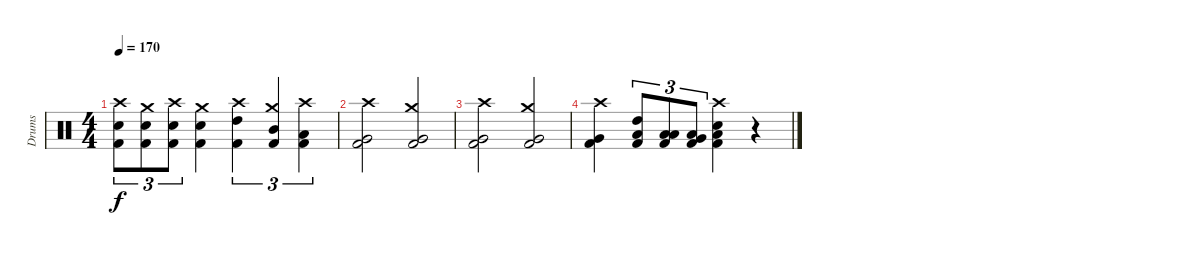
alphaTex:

\track ("Drums" "Drums") {instrument percussion}
\staff {score}
\articulation defaults
\ts (4 4)
\tempo 170
\clef neutral
\ks c
("Crash high (hit)" "Snare (hit) 2" "Kick (hit) 2").8{tu (3 2) dy f} ("Crash medium (hit)" "Snare (hit) 2" "Kick (hit) 2").8{tu (3 2)} ("Crash high (hit)" "Snare (hit) 2" "Kick (hit) 2").8{tu (3 2)} ("Crash medium (hit)" "Snare (hit) 2" "Kick (hit) 2").4 ("Crash high (hit)" "High Tom (hit)" "Kick (hit) 2").4{tu (3 2)} ("Crash medium (hit)" "Mid Tom (hit)" "Kick (hit) 2").4{tu (3 2)} ("Crash high (hit)" "Low Tom (hit)" "Kick (hit) 2").4{tu (3 2)} |
("Crash high (hit)" "Very Low Tom (hit)" "Kick (hit) 2").2 ("Crash medium (hit)" "Very Low Tom (hit)" "Kick (hit) 2").2 |
("Crash high (hit)" "Very Low Tom (hit)" "Kick (hit) 2").2 ("Crash medium (hit)" "Very Low Tom (hit)" "Kick (hit) 2").2 |
("Crash high (hit)" "Very Low Tom (hit)" "Kick (hit) 2").4 ("High Tom (hit)" "Low Floor Tom (hit)" "Kick (hit) 2").8{tu (3 2)} ("Low Tom (hit)" "Low Floor Tom (hit)" "Kick (hit) 2").8{tu (3 2)} ("Very Low Tom (hit)" "Low Floor Tom (hit)" "Kick (hit) 2").8{tu (3 2)} ("Crash high (hit)" "Snare (hit) 2" "Low Floor Tom (hit)" "Kick (hit) 2").4 r.4
